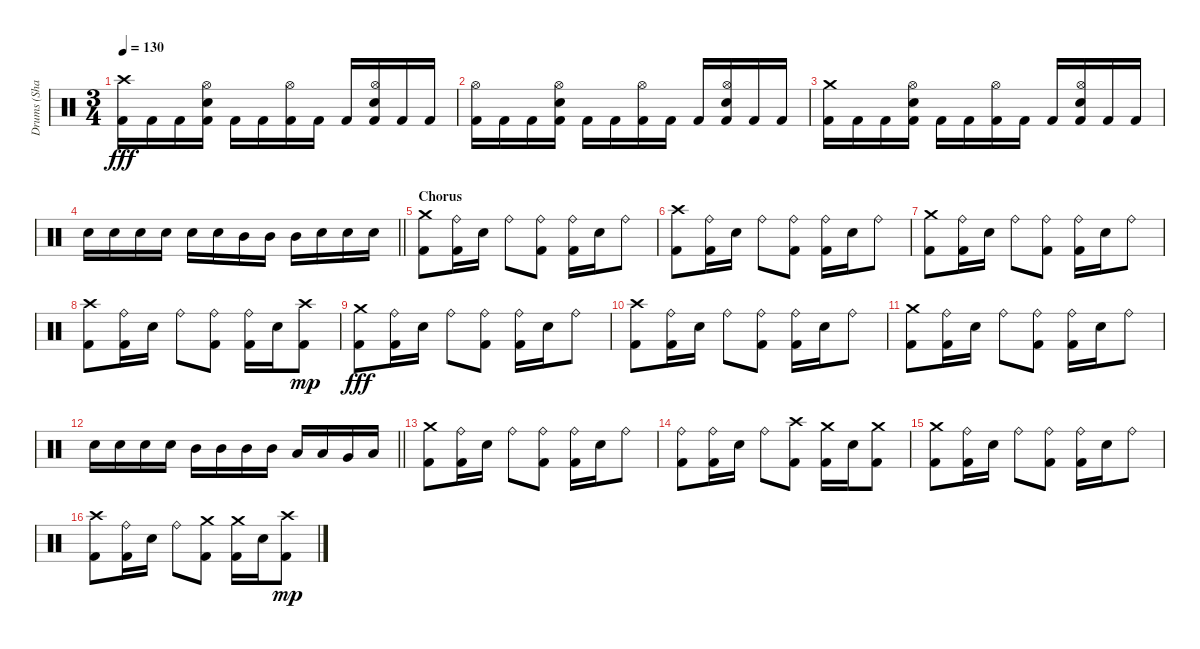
\track ("Drums (Shawn)" "Drums (Sha") {instrument percussion}
\staff {score}
\articulation defaults
\ts (3 4)
\tempo 130
\clef neutral
\ks c
("Crash high (hit)" "Kick (hit) 2").16{dy fff} "Kick (hit) 2".16 "Kick (hit) 2".16 ("Hi-Hat (open)" "Snare (hit) 2" "Kick (hit) 2").16 "Kick (hit) 2".16 "Kick (hit) 2".16 ("Hi-Hat (open)" "Kick (hit) 2").16 "Kick (hit) 2".16 "Kick (hit) 2".16 ("Hi-Hat (open)" "Snare (hit) 2" "Kick (hit) 2").16 "Kick (hit) 2".16 "Kick (hit) 2".16 |
("Hi-Hat (open)" "Kick (hit) 2").16 "Kick (hit) 2".16 "Kick (hit) 2".16 ("Hi-Hat (open)" "Snare (hit) 2" "Kick (hit) 2").16 "Kick (hit) 2".16 "Kick (hit) 2".16 ("Hi-Hat (open)" "Kick (hit) 2").16 "Kick (hit) 2".16 "Kick (hit) 2".16 ("Hi-Hat (open)" "Snare (hit) 2" "Kick (hit) 2").16 "Kick (hit) 2".16 "Kick (hit) 2".16 |
("Crash medium (hit)" "Kick (hit) 2").16 "Kick (hit) 2".16 "Kick (hit) 2".16 ("Hi-Hat (open)" "Snare (hit) 2" "Kick (hit) 2").16 "Kick (hit) 2".16 "Kick (hit) 2".16 ("Hi-Hat (open)" "Kick (hit) 2").16 "Kick (hit) 2".16 "Kick (hit) 2".16 ("Hi-Hat (open)" "Snare (hit) 2" "Kick (hit) 2").16 "Kick (hit) 2".16 "Kick (hit) 2".16 |
\barLineRight lightlight "Snare (hit) 2".16 "Snare (hit) 2".16 "Snare (hit) 2".16 "Snare (hit) 2".16 "Snare (hit) 2".16 "Snare (hit) 2".16 "Mid Tom (hit)".16 "Mid Tom (hit)".16 "Mid Tom (hit)".16 "Snare (hit) 2".16 "Snare (hit) 2".16 "Snare (hit) 2".16
|
\section ("" "Chorus")
("Crash medium (hit)" "Kick (hit) 2").8 ("Ride (bell)" "Kick (hit) 2").16 "Snare (hit) 2".16 "Ride (bell)".8 ("Ride (bell)" "Kick (hit) 2").8 ("Ride (bell)" "Kick (hit) 2").16 "Snare (hit) 2".16 "Ride (bell)".8 |
("Crash high (hit)" "Kick (hit) 2").8 ("Ride (bell)" "Kick (hit) 2").16 "Snare (hit) 2".16 "Ride (bell)".8 ("Ride (bell)" "Kick (hit) 2").8 ("Ride (bell)" "Kick (hit) 2").16 "Snare (hit) 2".16 "Ride (bell)".8 |
("Crash medium (hit)" "Kick (hit) 2").8 ("Ride (bell)" "Kick (hit) 2").16 "Snare (hit) 2".16 "Ride (bell)".8 ("Ride (bell)" "Kick (hit) 2").8 ("Ride (bell)" "Kick (hit) 2").16 "Snare (hit) 2".16 "Ride (bell)".8 |
("Crash high (hit)" "Kick (hit) 2").8 ("Ride (bell)" "Kick (hit) 2").16 "Snare (hit) 2".16 "Ride (bell)".8 ("Ride (bell)" "Kick (hit) 2").8 ("Ride (bell)" "Kick (hit) 2").16 "Snare (hit) 2".16 ("Crash high (hit)" "Kick (hit) 2").8{dy mp} |
("Crash medium (hit)" "Kick (hit) 2").8{dy fff} ("Ride (bell)" "Kick (hit) 2").16 "Snare (hit) 2".16 "Ride (bell)".8 ("Ride (bell)" "Kick (hit) 2").8 ("Ride (bell)" "Kick (hit) 2").16 "Snare (hit) 2".16 "Ride (bell)".8 |
("Crash high (hit)" "Kick (hit) 2").8 ("Ride (bell)" "Kick (hit) 2").16 "Snare (hit) 2".16 "Ride (bell)".8 ("Ride (bell)" "Kick (hit) 2").8 ("Ride (bell)" "Kick (hit) 2").16 "Snare (hit) 2".16 "Ride (bell)".8 |
("Crash medium (hit)" "Kick (hit) 2").8 ("Ride (bell)" "Kick (hit) 2").16 "Snare (hit) 2".16 "Ride (bell)".8 ("Ride (bell)" "Kick (hit) 2").8 ("Ride (bell)" "Kick (hit) 2").16 "Snare (hit) 2".16 "Ride (bell)".8 |
\barLineRight lightlight "Snare (hit) 2".16 "Snare (hit) 2".16 "Snare (hit) 2".16 "Snare (hit) 2".16 "Mid Tom (hit)".16 "Mid Tom (hit)".16 "Mid Tom (hit)".16 "Mid Tom (hit)".16 "Low Tom (hit)".16 "Low Tom (hit)".16 "Very Low Tom (hit)".16 "Low Floor Tom (hit)".16
|
("Crash medium (hit)" "Kick (hit) 2").8 ("Ride (bell)" "Kick (hit) 2").16 "Snare (hit) 2".16 "Ride (bell)".8 ("Ride (bell)" "Kick (hit) 2").8 ("Ride (bell)" "Kick (hit) 2").16 "Snare (hit) 2".16 "Ride (bell)".8 |
("Ride (bell)" "Kick (hit) 2").8 ("Ride (bell)" "Kick (hit) 2").16 "Snare (hit) 2".16 "Ride (bell)".8 ("Crash high (hit)" "Kick (hit) 2").8 ("Crash medium (hit)" "Kick (hit) 2").16 "Snare (hit) 2".16 ("Crash medium (hit)" "Kick (hit) 2").8 |
("Crash medium (hit)" "Kick (hit) 2").8 ("Ride (bell)" "Kick (hit) 2").16 "Snare (hit) 2".16 "Ride (bell)".8 ("Ride (bell)" "Kick (hit) 2").8 ("Ride (bell)" "Kick (hit) 2").16 "Snare (hit) 2".16 "Ride (bell)".8 |
("Crash high (hit)" "Kick (hit) 2").8 ("Ride (bell)" "Kick (hit) 2").16 "Snare (hit) 2".16 "Ride (bell)".8 ("Crash medium (hit)" "Kick (hit) 2").8 ("Crash medium (hit)" "Kick (hit) 2").16 "Snare (hit) 2".16 ("Crash high (hit)" "Kick (hit) 2").8{dy mp}
